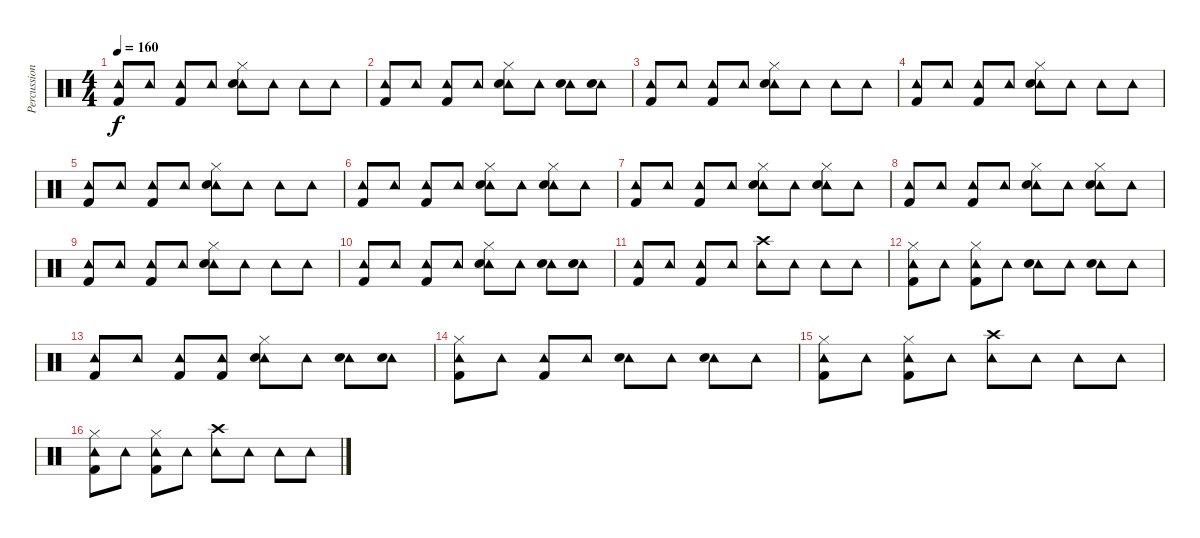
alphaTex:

\track ("Percussion" "Percussion") {instrument percussion}
\staff {score}
\articulation defaults
\ts (4 4)
\tempo 160
\clef neutral
\ks c
("Tambourine (hit)" "Kick (hit) 2").8{dy f} "Tambourine (hit)".8 ("Tambourine (hit)" "Kick (hit) 2").8 "Tambourine (hit)".8 ("Tambourine (hit)" "Snare (hit) 2" "Hi-Hat (closed)").8 "Tambourine (hit)".8 "Tambourine (hit)".8 "Tambourine (hit)".8 |
("Tambourine (hit)" "Kick (hit) 2").8 "Tambourine (hit)".8 ("Tambourine (hit)" "Kick (hit) 2").8 "Tambourine (hit)".8 ("Tambourine (hit)" "Snare (hit) 2" "Hi-Hat (closed)").8 "Tambourine (hit)".8 ("Tambourine (hit)" "Snare (hit) 2").8 ("Tambourine (hit)" "Snare (hit) 2").8 |
("Tambourine (hit)" "Kick (hit) 2").8 "Tambourine (hit)".8 ("Tambourine (hit)" "Kick (hit) 2").8 "Tambourine (hit)".8 ("Tambourine (hit)" "Snare (hit) 2" "Hi-Hat (closed)").8 "Tambourine (hit)".8 "Tambourine (hit)".8 "Tambourine (hit)".8 |
("Tambourine (hit)" "Kick (hit) 2").8 "Tambourine (hit)".8 ("Tambourine (hit)" "Kick (hit) 2").8 "Tambourine (hit)".8 ("Tambourine (hit)" "Snare (hit) 2" "Hi-Hat (closed)").8 "Tambourine (hit)".8 "Tambourine (hit)".8 "Tambourine (hit)".8 |
("Tambourine (hit)" "Kick (hit) 2").8 "Tambourine (hit)".8 ("Tambourine (hit)" "Kick (hit) 2").8 "Tambourine (hit)".8 ("Tambourine (hit)" "Snare (hit) 2" "Hi-Hat (closed)").8 "Tambourine (hit)".8 "Tambourine (hit)".8 "Tambourine (hit)".8 |
("Tambourine (hit)" "Kick (hit) 2").8 "Tambourine (hit)".8 ("Tambourine (hit)" "Kick (hit) 2").8 "Tambourine (hit)".8 ("Tambourine (hit)" "Snare (hit) 2" "Hi-Hat (closed)").8 "Tambourine (hit)".8 ("Tambourine (hit)" "Snare (hit) 2" "Hi-Hat (closed)").8 "Tambourine (hit)".8 |
("Tambourine (hit)" "Kick (hit) 2").8 "Tambourine (hit)".8 ("Tambourine (hit)" "Kick (hit) 2").8 "Tambourine (hit)".8 ("Tambourine (hit)" "Snare (hit) 2" "Hi-Hat (closed)").8 "Tambourine (hit)".8 ("Tambourine (hit)" "Snare (hit) 2" "Hi-Hat (closed)").8 "Tambourine (hit)".8 |
("Tambourine (hit)" "Kick (hit) 2").8 "Tambourine (hit)".8 ("Tambourine (hit)" "Kick (hit) 2").8 "Tambourine (hit)".8 ("Tambourine (hit)" "Snare (hit) 2" "Hi-Hat (closed)").8 "Tambourine (hit)".8 ("Tambourine (hit)" "Snare (hit) 2" "Hi-Hat (closed)").8 "Tambourine (hit)".8 |
("Tambourine (hit)" "Kick (hit) 2").8 "Tambourine (hit)".8 ("Tambourine (hit)" "Kick (hit) 2").8 "Tambourine (hit)".8 ("Tambourine (hit)" "Snare (hit) 2" "Hi-Hat (closed)").8 "Tambourine (hit)".8 "Tambourine (hit)".8 "Tambourine (hit)".8 |
("Tambourine (hit)" "Kick (hit) 2").8 "Tambourine (hit)".8 ("Tambourine (hit)" "Kick (hit) 2").8 "Tambourine (hit)".8 ("Tambourine (hit)" "Snare (hit) 2" "Hi-Hat (closed)").8 "Tambourine (hit)".8 ("Tambourine (hit)" "Snare (hit) 2").8 ("Tambourine (hit)" "Snare (hit) 2").8 |
("Tambourine (hit)" "Kick (hit) 2").8 "Tambourine (hit)".8 ("Tambourine (hit)" "Kick (hit) 2").8 "Tambourine (hit)".8 ("Tambourine (hit)" "Crash high (hit)").8 "Tambourine (hit)".8 "Tambourine (hit)".8 "Tambourine (hit)".8 |
("Tambourine (hit)" "Hi-Hat (closed)" "Kick (hit) 2").8 "Tambourine (hit)".8 ("Tambourine (hit)" "Hi-Hat (closed)" "Kick (hit) 2").8 "Tambourine (hit)".8 ("Tambourine (hit)" "Snare (hit) 2").8 "Tambourine (hit)".8 ("Tambourine (hit)" "Snare (hit) 2").8 "Tambourine (hit)".8 |
("Tambourine (hit)" "Kick (hit) 2").8 "Tambourine (hit)".8 ("Tambourine (hit)" "Kick (hit) 2").8 ("Tambourine (hit)" "Kick (hit) 2").8 ("Tambourine (hit)" "Snare (hit) 2" "Hi-Hat (closed)").8 "Tambourine (hit)".8 ("Tambourine (hit)" "Snare (hit) 2").8 ("Tambourine (hit)" "Snare (hit) 2").8 |
("Tambourine (hit)" "Hi-Hat (closed)" "Kick (hit) 2").8 "Tambourine (hit)".8 ("Tambourine (hit)" "Kick (hit) 2").8 "Tambourine (hit)".8 ("Tambourine (hit)" "Snare (hit) 2").8 "Tambourine (hit)".8 ("Tambourine (hit)" "Snare (hit) 2").8 "Tambourine (hit)".8 |
("Tambourine (hit)" "Hi-Hat (closed)" "Kick (hit) 2").8 "Tambourine (hit)".8 ("Tambourine (hit)" "Hi-Hat (closed)" "Kick (hit) 2").8 "Tambourine (hit)".8 ("Tambourine (hit)" "Crash high (hit)").8 "Tambourine (hit)".8 "Tambourine (hit)".8 "Tambourine (hit)".8 |
("Tambourine (hit)" "Hi-Hat (closed)" "Kick (hit) 2").8 "Tambourine (hit)".8 ("Tambourine (hit)" "Hi-Hat (closed)" "Kick (hit) 2").8 "Tambourine (hit)".8 ("Tambourine (hit)" "Crash high (hit)").8 "Tambourine (hit)".8 "Tambourine (hit)".8 "Tambourine (hit)".8
